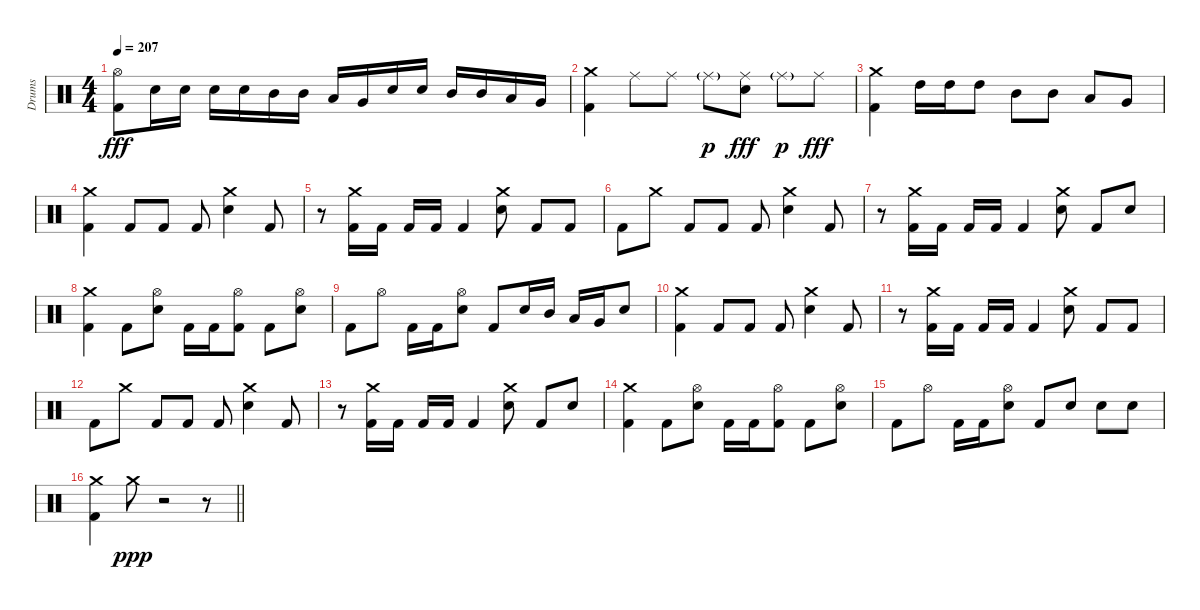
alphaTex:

\track ("Drums" "Drums") {instrument percussion}
\staff {score}
\articulation defaults
\ts (4 4)
\tempo 207
\clef neutral
\ks c
("Hi-Hat (open)" "Kick (hit) 2").8{dy fff} "Electric Snare (hit)".16 "Electric Snare (hit)".16 "Electric Snare (hit)".16 "Electric Snare (hit)".16 "Mid Tom (hit)".16 "Mid Tom (hit)".16 "Low Tom (hit)".16 "Very Low Tom (hit)".16 "Electric Snare (hit)".16 "Electric Snare (hit)".16 "Mid Tom (hit)".16 "Mid Tom (hit)".16 "Low Tom (hit)".16 "Very Low Tom (hit)".16 |
("Crash medium (hit)" "Kick (hit) 2").4 "Ride (middle)".8 "Ride (middle)".8 "Ride (middle)"{g}.8{dy p} ("Ride (middle)" "Electric Snare (hit)").8{dy fff} "Ride (middle)"{g}.8{dy p} "Ride (middle)".8{dy fff} |
("Crash medium (hit)" "Kick (hit) 2").4 "High Tom (hit)".16 "High Tom (hit)".16 "High Tom (hit)".8 "Mid Tom (hit)".8 "Mid Tom (hit)".8 "Low Tom (hit)".8 "Very Low Tom (hit)".8 |
("Crash medium (hit)" "Kick (hit) 2").4 "Kick (hit) 2".8 "Kick (hit) 2".8 "Kick (hit) 2".8 ("Crash medium (hit)" "Electric Snare (hit)").4 "Kick (hit) 2".8 |
r.8 ("Crash medium (hit)" "Kick (hit) 2").16 "Kick (hit) 2".16 "Kick (hit) 2".16 "Kick (hit) 2".16 "Kick (hit) 2".4 ("Crash medium (hit)" "Electric Snare (hit)").8 "Kick (hit) 2".8 "Kick (hit) 2".8 |
"Kick (hit) 2".8 "Crash medium (hit)".8 "Kick (hit) 2".8 "Kick (hit) 2".8 "Kick (hit) 2".8 ("Crash medium (hit)" "Electric Snare (hit)").4 "Kick (hit) 2".8 |
r.8 ("Crash medium (hit)" "Kick (hit) 2").16 "Kick (hit) 2".16 "Kick (hit) 2".16 "Kick (hit) 2".16 "Kick (hit) 2".4 ("Crash medium (hit)" "Electric Snare (hit)").8 "Kick (hit) 2".8 "Electric Snare (hit)".8 |
("Crash medium (hit)" "Kick (hit) 2").4 "Kick (hit) 2".8 ("Hi-Hat (open)" "Electric Snare (hit)").8 "Kick (hit) 2".16 "Kick (hit) 2".16 ("Hi-Hat (open)" "Kick (hit) 2").8 "Kick (hit) 2".8 ("Hi-Hat (open)" "Electric Snare (hit)").8 |
"Kick (hit) 2".8 "Hi-Hat (open)".8 "Kick (hit) 2".16 "Kick (hit) 2".16 ("Hi-Hat (open)" "Electric Snare (hit)").8 "Kick (hit) 2".8 "Electric Snare (hit)".16 "Mid Tom (hit)".16 "Low Tom (hit)".16 "Very Low Tom (hit)".16 "Electric Snare (hit)".8 |
("Crash medium (hit)" "Kick (hit) 2").4 "Kick (hit) 2".8 "Kick (hit) 2".8 "Kick (hit) 2".8 ("Crash medium (hit)" "Electric Snare (hit)").4 "Kick (hit) 2".8 |
r.8 ("Crash medium (hit)" "Kick (hit) 2").16 "Kick (hit) 2".16 "Kick (hit) 2".16 "Kick (hit) 2".16 "Kick (hit) 2".4 ("Crash medium (hit)" "Electric Snare (hit)").8 "Kick (hit) 2".8 "Kick (hit) 2".8 |
"Kick (hit) 2".8 "Crash medium (hit)".8 "Kick (hit) 2".8 "Kick (hit) 2".8 "Kick (hit) 2".8 ("Crash medium (hit)" "Electric Snare (hit)").4 "Kick (hit) 2".8 |
r.8 ("Crash medium (hit)" "Kick (hit) 2").16 "Kick (hit) 2".16 "Kick (hit) 2".16 "Kick (hit) 2".16 "Kick (hit) 2".4 ("Crash medium (hit)" "Electric Snare (hit)").8 "Kick (hit) 2".8 "Electric Snare (hit)".8 |
("Crash medium (hit)" "Kick (hit) 2").4 "Kick (hit) 2".8 ("Hi-Hat (open)" "Electric Snare (hit)").8 "Kick (hit) 2".16 "Kick (hit) 2".16 ("Hi-Hat (open)" "Kick (hit) 2").8 "Kick (hit) 2".8 ("Hi-Hat (open)" "Electric Snare (hit)").8 |
"Kick (hit) 2".8 "Hi-Hat (open)".8 "Kick (hit) 2".16 "Kick (hit) 2".16 ("Hi-Hat (open)" "Electric Snare (hit)").8 "Kick (hit) 2".8 "Electric Snare (hit)".8 "Electric Snare (hit)".8 "Electric Snare (hit)".8 |
\barLineRight lightlight
("Crash medium (hit)" "Kick (hit) 2").4 "Crash medium (hit)".8{dy ppp} r.2 r.8
